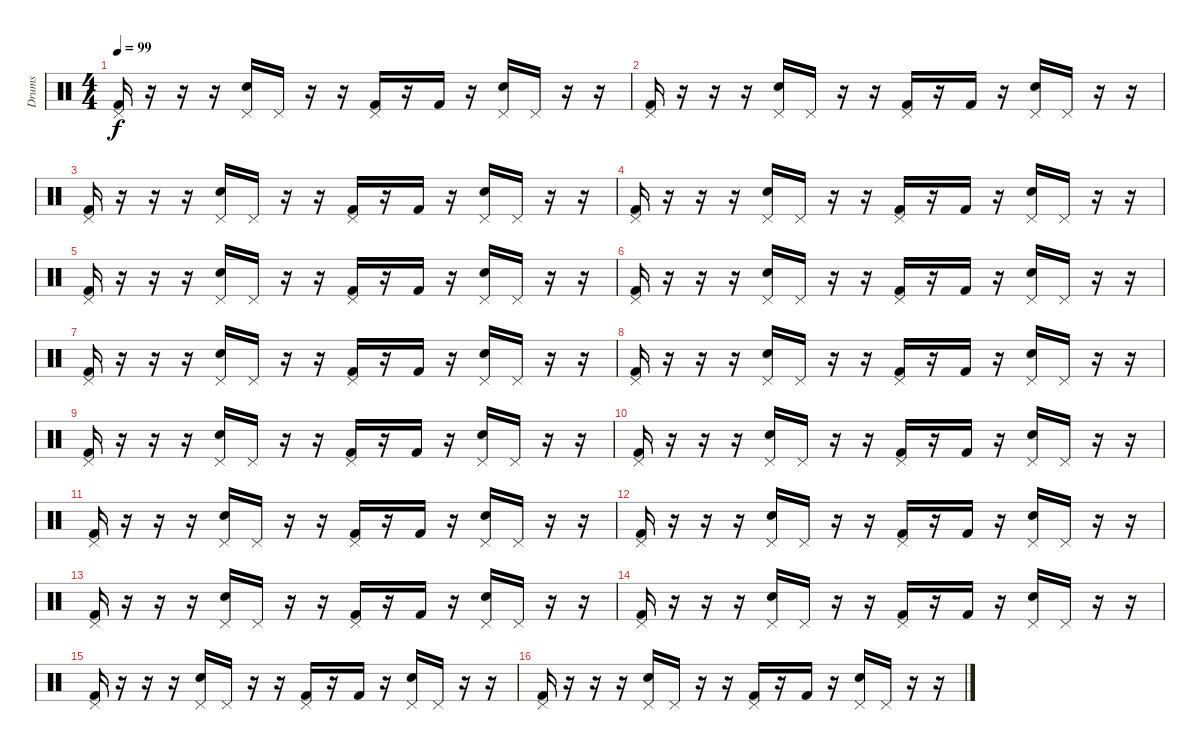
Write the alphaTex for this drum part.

\track ("Drums" "Drums") {instrument percussion}
\staff {score}
\articulation defaults
\ts (4 4)
\tempo 99
\clef neutral
\ks c
("Pedal Hi-Hat (hit)" "Kick (hit) 2").16{dy f} r.16 r.16 r.16 ("Pedal Hi-Hat (hit)" "Electric Snare (hit)").16 "Pedal Hi-Hat (hit)".16 r.16 r.16 ("Pedal Hi-Hat (hit)" "Kick (hit) 2").16 r.16 "Kick (hit) 2".16 r.16 ("Pedal Hi-Hat (hit)" "Electric Snare (hit)").16 "Pedal Hi-Hat (hit)".16 r.16 r.16 |
("Pedal Hi-Hat (hit)" "Kick (hit) 2").16 r.16 r.16 r.16 ("Pedal Hi-Hat (hit)" "Electric Snare (hit)").16 "Pedal Hi-Hat (hit)".16 r.16 r.16 ("Pedal Hi-Hat (hit)" "Kick (hit) 2").16 r.16 "Kick (hit) 2".16 r.16 ("Pedal Hi-Hat (hit)" "Electric Snare (hit)").16 "Pedal Hi-Hat (hit)".16 r.16 r.16 |
("Pedal Hi-Hat (hit)" "Kick (hit) 2").16 r.16 r.16 r.16 ("Pedal Hi-Hat (hit)" "Electric Snare (hit)").16 "Pedal Hi-Hat (hit)".16 r.16 r.16 ("Pedal Hi-Hat (hit)" "Kick (hit) 2").16 r.16 "Kick (hit) 2".16 r.16 ("Pedal Hi-Hat (hit)" "Electric Snare (hit)").16 "Pedal Hi-Hat (hit)".16 r.16 r.16 |
("Pedal Hi-Hat (hit)" "Kick (hit) 2").16 r.16 r.16 r.16 ("Pedal Hi-Hat (hit)" "Electric Snare (hit)").16 "Pedal Hi-Hat (hit)".16 r.16 r.16 ("Pedal Hi-Hat (hit)" "Kick (hit) 2").16 r.16 "Kick (hit) 2".16 r.16 ("Pedal Hi-Hat (hit)" "Electric Snare (hit)").16 "Pedal Hi-Hat (hit)".16 r.16 r.16 |
("Pedal Hi-Hat (hit)" "Kick (hit) 2").16 r.16 r.16 r.16 ("Pedal Hi-Hat (hit)" "Electric Snare (hit)").16 "Pedal Hi-Hat (hit)".16 r.16 r.16 ("Pedal Hi-Hat (hit)" "Kick (hit) 2").16 r.16 "Kick (hit) 2".16 r.16 ("Pedal Hi-Hat (hit)" "Electric Snare (hit)").16 "Pedal Hi-Hat (hit)".16 r.16 r.16 |
("Pedal Hi-Hat (hit)" "Kick (hit) 2").16 r.16 r.16 r.16 ("Pedal Hi-Hat (hit)" "Electric Snare (hit)").16 "Pedal Hi-Hat (hit)".16 r.16 r.16 ("Pedal Hi-Hat (hit)" "Kick (hit) 2").16 r.16 "Kick (hit) 2".16 r.16 ("Pedal Hi-Hat (hit)" "Electric Snare (hit)").16 "Pedal Hi-Hat (hit)".16 r.16 r.16 |
("Pedal Hi-Hat (hit)" "Kick (hit) 2").16 r.16 r.16 r.16 ("Pedal Hi-Hat (hit)" "Electric Snare (hit)").16 "Pedal Hi-Hat (hit)".16 r.16 r.16 ("Pedal Hi-Hat (hit)" "Kick (hit) 2").16 r.16 "Kick (hit) 2".16 r.16 ("Pedal Hi-Hat (hit)" "Electric Snare (hit)").16 "Pedal Hi-Hat (hit)".16 r.16 r.16 |
("Pedal Hi-Hat (hit)" "Kick (hit) 2").16 r.16 r.16 r.16 ("Pedal Hi-Hat (hit)" "Electric Snare (hit)").16 "Pedal Hi-Hat (hit)".16 r.16 r.16 ("Pedal Hi-Hat (hit)" "Kick (hit) 2").16 r.16 "Kick (hit) 2".16 r.16 ("Pedal Hi-Hat (hit)" "Electric Snare (hit)").16 "Pedal Hi-Hat (hit)".16 r.16 r.16 |
("Pedal Hi-Hat (hit)" "Kick (hit) 2").16 r.16 r.16 r.16 ("Pedal Hi-Hat (hit)" "Electric Snare (hit)").16 "Pedal Hi-Hat (hit)".16 r.16 r.16 ("Pedal Hi-Hat (hit)" "Kick (hit) 2").16 r.16 "Kick (hit) 2".16 r.16 ("Pedal Hi-Hat (hit)" "Electric Snare (hit)").16 "Pedal Hi-Hat (hit)".16 r.16 r.16 |
("Pedal Hi-Hat (hit)" "Kick (hit) 2").16 r.16 r.16 r.16 ("Pedal Hi-Hat (hit)" "Electric Snare (hit)").16 "Pedal Hi-Hat (hit)".16 r.16 r.16 ("Pedal Hi-Hat (hit)" "Kick (hit) 2").16 r.16 "Kick (hit) 2".16 r.16 ("Pedal Hi-Hat (hit)" "Electric Snare (hit)").16 "Pedal Hi-Hat (hit)".16 r.16 r.16 |
("Pedal Hi-Hat (hit)" "Kick (hit) 2").16 r.16 r.16 r.16 ("Pedal Hi-Hat (hit)" "Electric Snare (hit)").16 "Pedal Hi-Hat (hit)".16 r.16 r.16 ("Pedal Hi-Hat (hit)" "Kick (hit) 2").16 r.16 "Kick (hit) 2".16 r.16 ("Pedal Hi-Hat (hit)" "Electric Snare (hit)").16 "Pedal Hi-Hat (hit)".16 r.16 r.16 |
("Pedal Hi-Hat (hit)" "Kick (hit) 2").16 r.16 r.16 r.16 ("Pedal Hi-Hat (hit)" "Electric Snare (hit)").16 "Pedal Hi-Hat (hit)".16 r.16 r.16 ("Pedal Hi-Hat (hit)" "Kick (hit) 2").16 r.16 "Kick (hit) 2".16 r.16 ("Pedal Hi-Hat (hit)" "Electric Snare (hit)").16 "Pedal Hi-Hat (hit)".16 r.16 r.16 |
("Pedal Hi-Hat (hit)" "Kick (hit) 2").16 r.16 r.16 r.16 ("Pedal Hi-Hat (hit)" "Electric Snare (hit)").16 "Pedal Hi-Hat (hit)".16 r.16 r.16 ("Pedal Hi-Hat (hit)" "Kick (hit) 2").16 r.16 "Kick (hit) 2".16 r.16 ("Pedal Hi-Hat (hit)" "Electric Snare (hit)").16 "Pedal Hi-Hat (hit)".16 r.16 r.16 |
("Pedal Hi-Hat (hit)" "Kick (hit) 2").16 r.16 r.16 r.16 ("Pedal Hi-Hat (hit)" "Electric Snare (hit)").16 "Pedal Hi-Hat (hit)".16 r.16 r.16 ("Pedal Hi-Hat (hit)" "Kick (hit) 2").16 r.16 "Kick (hit) 2".16 r.16 ("Pedal Hi-Hat (hit)" "Electric Snare (hit)").16 "Pedal Hi-Hat (hit)".16 r.16 r.16 |
("Pedal Hi-Hat (hit)" "Kick (hit) 2").16 r.16 r.16 r.16 ("Pedal Hi-Hat (hit)" "Electric Snare (hit)").16 "Pedal Hi-Hat (hit)".16 r.16 r.16 ("Pedal Hi-Hat (hit)" "Kick (hit) 2").16 r.16 "Kick (hit) 2".16 r.16 ("Pedal Hi-Hat (hit)" "Electric Snare (hit)").16 "Pedal Hi-Hat (hit)".16 r.16 r.16 |
("Pedal Hi-Hat (hit)" "Kick (hit) 2").16 r.16 r.16 r.16 ("Pedal Hi-Hat (hit)" "Electric Snare (hit)").16 "Pedal Hi-Hat (hit)".16 r.16 r.16 ("Pedal Hi-Hat (hit)" "Kick (hit) 2").16 r.16 "Kick (hit) 2".16 r.16 ("Pedal Hi-Hat (hit)" "Electric Snare (hit)").16 "Pedal Hi-Hat (hit)".16 r.16 r.16
